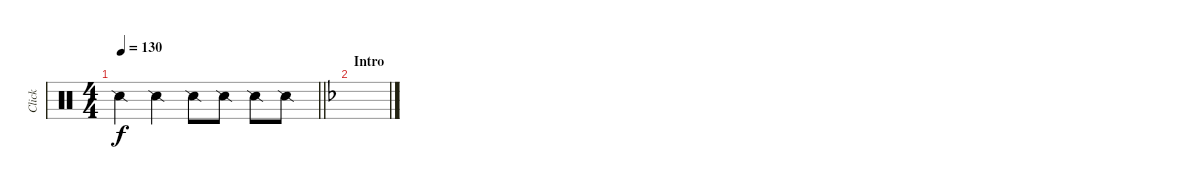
\track ("Click" "Click") {instrument percussion}
\staff {score}
\articulation defaults
\ts (4 4)
\tempo 130
\clef neutral
\barLineRight lightlight
\ks c "Snare (side stick) 2".4{dy f} "Snare (side stick) 2".4 "Snare (side stick) 2".8 "Snare (side stick) 2".8 "Snare (side stick) 2".8 "Snare (side stick) 2".8
|
\section ("" "Intro")
\ks f
